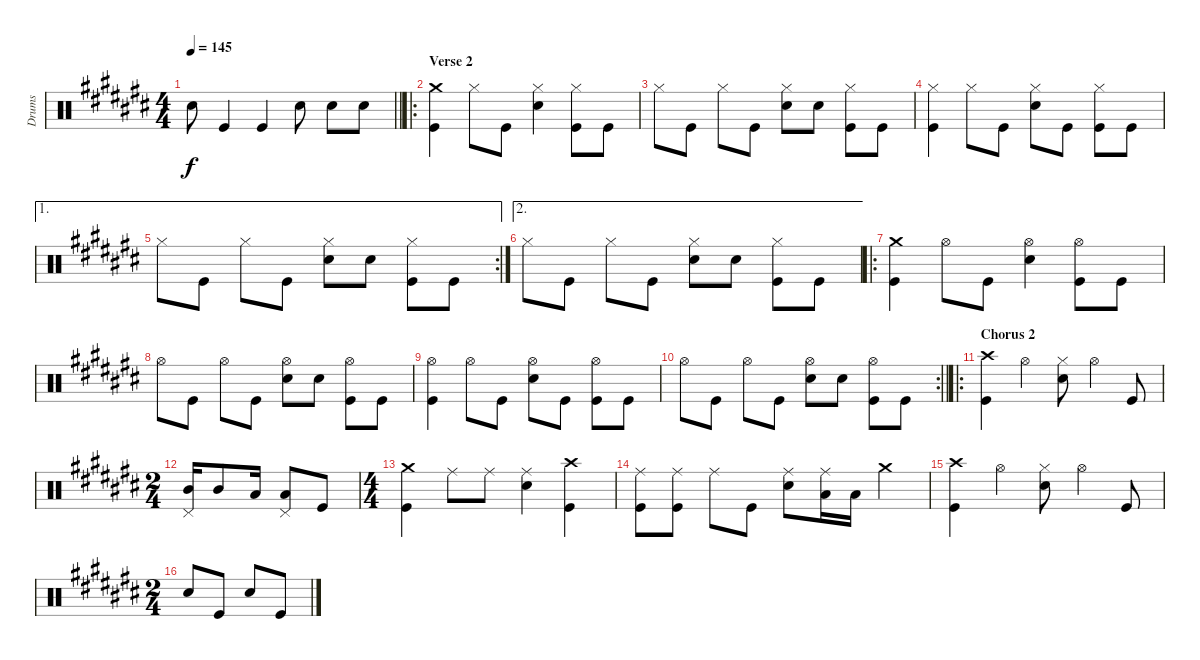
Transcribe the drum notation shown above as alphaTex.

\track ("Drums" "Drums") {instrument percussion}
\staff {score}
\articulation defaults
\ts (4 4)
\tempo 145
\clef neutral
\barLineRight lightlight
\ks c# "Snare (hit) 2".8{dy f} "Kick (hit)".4 "Kick (hit)".4 "Snare (hit) 2".8 "Snare (hit) 2".8 "Snare (hit) 2".8
|
\ro
\section ("" "Verse 2")
("Crash medium (hit)" "Kick (hit)").4 "Hi-Hat (closed)".8 "Kick (hit)".8 ("Hi-Hat (closed)" "Snare (hit) 2").4 ("Hi-Hat (closed)" "Kick (hit)").8 "Kick (hit)".8 |
"Hi-Hat (closed)".8 "Kick (hit)".8 "Hi-Hat (closed)".8 "Kick (hit)".8 ("Hi-Hat (closed)" "Snare (hit) 2").8 "Snare (hit) 2".8 ("Hi-Hat (closed)" "Kick (hit)").8 "Kick (hit)".8 |
("Hi-Hat (closed)" "Kick (hit)").4 "Hi-Hat (closed)".8 "Kick (hit)".8 ("Hi-Hat (closed)" "Snare (hit) 2").8 "Kick (hit)".8 ("Hi-Hat (closed)" "Kick (hit)").8 "Kick (hit)".8 |
\ae 1
\rc 2 "Hi-Hat (closed)".8 "Kick (hit)".8 "Hi-Hat (closed)".8 "Kick (hit)".8
("Hi-Hat (closed)" "Snare (hit) 2").8 "Snare (hit) 2".8 ("Hi-Hat (closed)" "Kick (hit)").8 "Kick (hit)".8 |
\ae 2 "Hi-Hat (closed)".8 "Kick (hit)".8 "Hi-Hat (closed)".8 "Kick (hit)".8
("Hi-Hat (closed)" "Snare (hit) 2").8 "Snare (hit) 2".8 ("Hi-Hat (closed)" "Kick (hit)").8 "Kick (hit)".8 |
\ro
("Crash medium (hit)" "Kick (hit)").4 "Hi-Hat (open)".8 "Kick (hit)".8 ("Hi-Hat (open)" "Snare (hit) 2").4 ("Hi-Hat (open)" "Kick (hit)").8 "Kick (hit)".8 |
"Hi-Hat (open)".8 "Kick (hit)".8 "Hi-Hat (open)".8 "Kick (hit)".8 ("Hi-Hat (open)" "Snare (hit) 2").8 "Snare (hit) 2".8 ("Hi-Hat (open)" "Kick (hit)").8 "Kick (hit)".8 |
("Hi-Hat (open)" "Kick (hit)").4 "Hi-Hat (open)".8 "Kick (hit)".8 ("Hi-Hat (open)" "Snare (hit) 2").8 "Kick (hit)".8 ("Hi-Hat (open)" "Kick (hit)").8 "Kick (hit)".8 |
\rc 2
\barLineRight lightlight "Hi-Hat (open)".8 "Kick (hit)".8 "Hi-Hat (open)".8 "Kick (hit)".8
("Hi-Hat (open)" "Snare (hit) 2").8 "Snare (hit) 2".8 ("Hi-Hat (open)" "Kick (hit)").8 "Kick (hit)".8 |
\ro
\section ("" "Chorus 2")
("Crash high (hit)" "Kick (hit)").4 "Hi-Hat (open)".4 ("Hi-Hat (closed)" "Snare (hit) 2").8 "Hi-Hat (open)".4 "Kick (hit)".8 |
\ts (2 4)
("Pedal Hi-Hat (hit)" "Mid Tom (hit)").16 "Mid Tom (hit)".8 "Low Tom (hit)".16 ("Pedal Hi-Hat (hit)" "Low Tom (hit)").8 "Kick (hit)".8 |
\ts (4 4)
("Crash medium (hit)" "Kick (hit)").4 "Ride (middle)".8 "Ride (middle)".8 ("Ride (middle)" "Snare (hit) 2").4 ("Crash high (hit)" "Kick (hit)").4 |
("Ride (middle)" "Kick (hit)").8 ("Ride (middle)" "Kick (hit)").8 "Ride (middle)".8 "Kick (hit)".8 ("Ride (middle)" "Snare (hit) 2").8 ("Ride (middle)" "Low Tom (hit)").16 "Low Tom (hit)".16 "Crash medium (hit)".4 |
("Crash high (hit)" "Kick (hit)").4 "Hi-Hat (open)".4 ("Hi-Hat (closed)" "Snare (hit) 2").8 "Hi-Hat (open)".4 "Kick (hit)".8 |
\ts (2 4)
"Snare (hit) 2".8 "Kick (hit)".8 "Snare (hit) 2".8 "Kick (hit)".8
